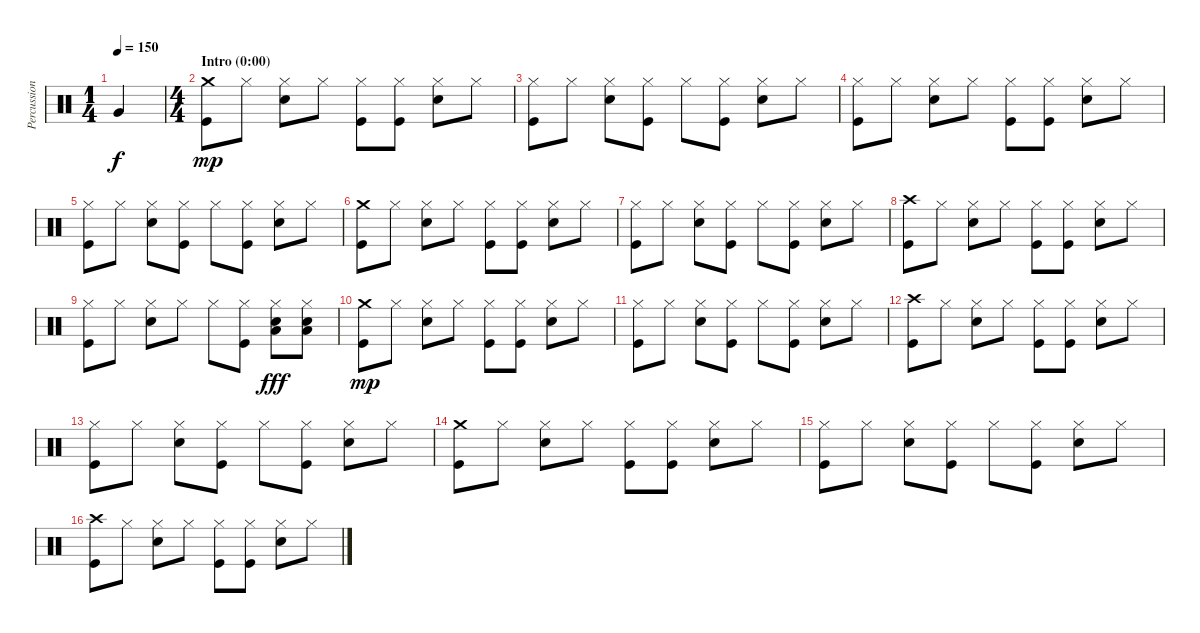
\track ("Percussion" "Percussion") {instrument percussion}
\staff {score}
\articulation defaults
\ts (1 4)
\tempo 150
\clef neutral
\ks c "Very Low Tom (hit)".4{dy f}
|
\ts (4 4)
\section ("" "Intro (0:00)")
("Crash medium (hit)" "Kick (hit)").8{dy mp} "Hi-Hat (closed)".8 ("Hi-Hat (closed)" "Electric Snare (hit)").8 "Hi-Hat (closed)".8 ("Hi-Hat (closed)" "Kick (hit)").8 ("Hi-Hat (closed)" "Kick (hit)").8 ("Hi-Hat (closed)" "Electric Snare (hit)").8 "Hi-Hat (closed)".8 |
("Hi-Hat (closed)" "Kick (hit)").8 "Hi-Hat (closed)".8 ("Hi-Hat (closed)" "Electric Snare (hit)").8 ("Hi-Hat (closed)" "Kick (hit)").8 "Hi-Hat (closed)".8 ("Hi-Hat (closed)" "Kick (hit)").8 ("Hi-Hat (closed)" "Electric Snare (hit)").8 "Hi-Hat (closed)".8 |
("Hi-Hat (closed)" "Kick (hit)").8 "Hi-Hat (closed)".8 ("Hi-Hat (closed)" "Electric Snare (hit)").8 "Hi-Hat (closed)".8 ("Hi-Hat (closed)" "Kick (hit)").8 ("Hi-Hat (closed)" "Kick (hit)").8 ("Hi-Hat (closed)" "Electric Snare (hit)").8 "Hi-Hat (closed)".8 |
("Hi-Hat (closed)" "Kick (hit)").8 "Hi-Hat (closed)".8 ("Hi-Hat (closed)" "Electric Snare (hit)").8 ("Hi-Hat (closed)" "Kick (hit)").8 "Hi-Hat (closed)".8 ("Hi-Hat (closed)" "Kick (hit)").8 ("Hi-Hat (closed)" "Electric Snare (hit)").8 "Hi-Hat (closed)".8 |
("Crash medium (hit)" "Kick (hit)").8 "Hi-Hat (closed)".8 ("Hi-Hat (closed)" "Electric Snare (hit)").8 "Hi-Hat (closed)".8 ("Hi-Hat (closed)" "Kick (hit)").8 ("Hi-Hat (closed)" "Kick (hit)").8 ("Hi-Hat (closed)" "Electric Snare (hit)").8 "Hi-Hat (closed)".8 |
("Hi-Hat (closed)" "Kick (hit)").8 "Hi-Hat (closed)".8 ("Hi-Hat (closed)" "Electric Snare (hit)").8 ("Hi-Hat (closed)" "Kick (hit)").8 "Hi-Hat (closed)".8 ("Hi-Hat (closed)" "Kick (hit)").8 ("Hi-Hat (closed)" "Electric Snare (hit)").8 "Hi-Hat (closed)".8 |
("Crash high (hit)" "Kick (hit)").8 "Hi-Hat (closed)".8 ("Hi-Hat (closed)" "Electric Snare (hit)").8 "Hi-Hat (closed)".8 ("Hi-Hat (closed)" "Kick (hit)").8 ("Hi-Hat (closed)" "Kick (hit)").8 ("Hi-Hat (closed)" "Electric Snare (hit)").8 "Hi-Hat (closed)".8 |
("Hi-Hat (closed)" "Kick (hit)").8 "Hi-Hat (closed)".8 ("Hi-Hat (closed)" "Electric Snare (hit)").8 "Hi-Hat (closed)".8 "Hi-Hat (closed)".8 ("Hi-Hat (closed)" "Kick (hit)").8 ("Hi-Hat (closed)" "Electric Snare (hit)" "Low Floor Tom (hit)").8{dy fff} ("Hi-Hat (closed)" "Electric Snare (hit)" "Low Floor Tom (hit)").8 |
("Crash medium (hit)" "Kick (hit)").8{dy mp} "Hi-Hat (closed)".8 ("Hi-Hat (closed)" "Electric Snare (hit)").8 "Hi-Hat (closed)".8 ("Hi-Hat (closed)" "Kick (hit)").8 ("Hi-Hat (closed)" "Kick (hit)").8 ("Hi-Hat (closed)" "Electric Snare (hit)").8 "Hi-Hat (closed)".8 |
("Hi-Hat (closed)" "Kick (hit)").8 "Hi-Hat (closed)".8 ("Hi-Hat (closed)" "Electric Snare (hit)").8 ("Hi-Hat (closed)" "Kick (hit)").8 "Hi-Hat (closed)".8 ("Hi-Hat (closed)" "Kick (hit)").8 ("Hi-Hat (closed)" "Electric Snare (hit)").8 "Hi-Hat (closed)".8 |
("Crash high (hit)" "Kick (hit)").8 "Hi-Hat (closed)".8 ("Hi-Hat (closed)" "Electric Snare (hit)").8 "Hi-Hat (closed)".8 ("Hi-Hat (closed)" "Kick (hit)").8 ("Hi-Hat (closed)" "Kick (hit)").8 ("Hi-Hat (closed)" "Electric Snare (hit)").8 "Hi-Hat (closed)".8 |
("Hi-Hat (closed)" "Kick (hit)").8 "Hi-Hat (closed)".8 ("Hi-Hat (closed)" "Electric Snare (hit)").8 ("Hi-Hat (closed)" "Kick (hit)").8 "Hi-Hat (closed)".8 ("Hi-Hat (closed)" "Kick (hit)").8 ("Hi-Hat (closed)" "Electric Snare (hit)").8 "Hi-Hat (closed)".8 |
("Crash medium (hit)" "Kick (hit)").8 "Hi-Hat (closed)".8 ("Hi-Hat (closed)" "Electric Snare (hit)").8 "Hi-Hat (closed)".8 ("Hi-Hat (closed)" "Kick (hit)").8 ("Hi-Hat (closed)" "Kick (hit)").8 ("Hi-Hat (closed)" "Electric Snare (hit)").8 "Hi-Hat (closed)".8 |
("Hi-Hat (closed)" "Kick (hit)").8 "Hi-Hat (closed)".8 ("Hi-Hat (closed)" "Electric Snare (hit)").8 ("Hi-Hat (closed)" "Kick (hit)").8 "Hi-Hat (closed)".8 ("Hi-Hat (closed)" "Kick (hit)").8 ("Hi-Hat (closed)" "Electric Snare (hit)").8 "Hi-Hat (closed)".8 |
("Crash high (hit)" "Kick (hit)").8 "Hi-Hat (closed)".8 ("Hi-Hat (closed)" "Electric Snare (hit)").8 "Hi-Hat (closed)".8 ("Hi-Hat (closed)" "Kick (hit)").8 ("Hi-Hat (closed)" "Kick (hit)").8 ("Hi-Hat (closed)" "Electric Snare (hit)").8 "Hi-Hat (closed)".8
